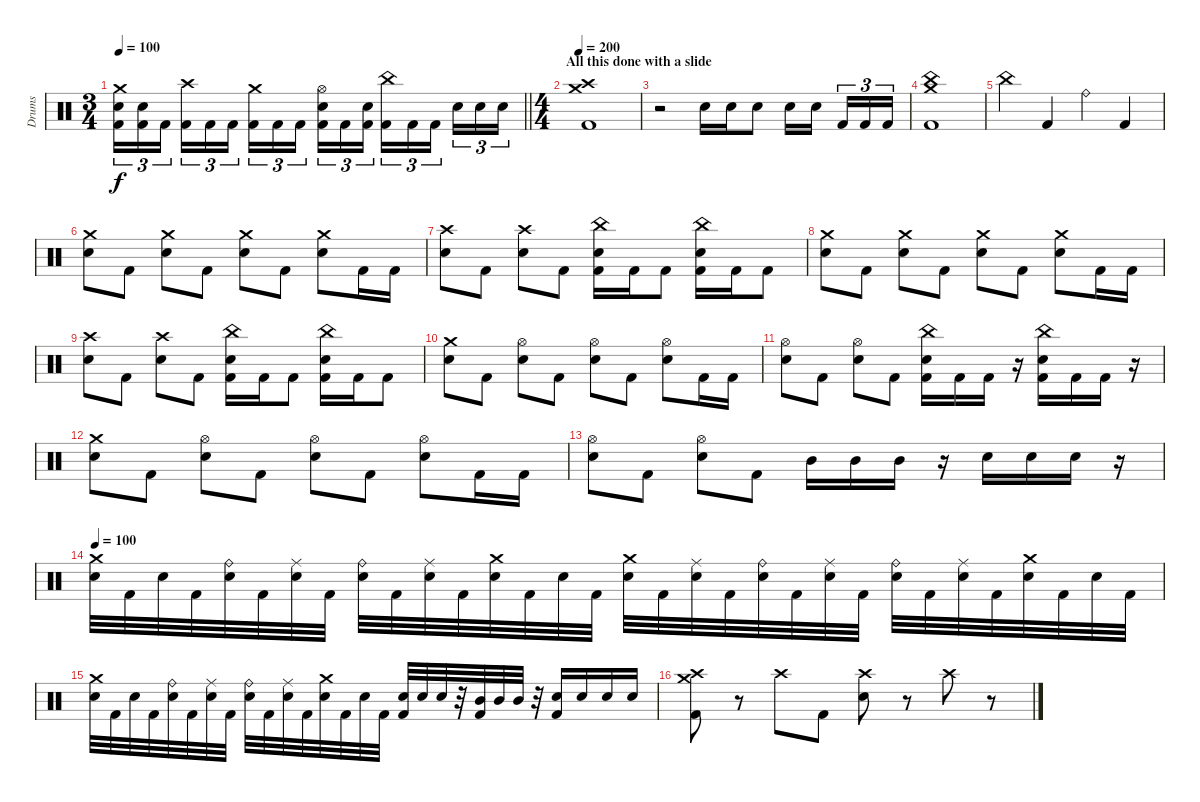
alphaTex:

\track ("Drums" "Drums") {instrument percussion}
\staff {score}
\articulation defaults
\ts (3 4)
\tempo 100
\clef neutral
\barLineRight lightlight
\ks c
("Crash medium (hit)" "Electric Snare (hit)" "Kick (hit) 2").16{tu (3 2) dy f} ("Electric Snare (hit)" "Kick (hit) 2").16{tu (3 2)} "Kick (hit) 2".16{tu (3 2) beam splitsecondary} ("Crash high (hit)" "Kick (hit) 2").16{tu (3 2)} "Kick (hit) 2".16{tu (3 2)} "Kick (hit) 2".16{tu (3 2)} ("Crash medium (hit)" "Kick (hit) 2").16{tu (3 2)} "Kick (hit) 2".16{tu (3 2)} "Kick (hit) 2".16{tu (3 2) beam splitsecondary} ("Hi-Hat (open)" "Electric Snare (hit)" "Kick (hit) 2").16{tu (3 2)} "Kick (hit) 2".16{tu (3 2)} ("Electric Snare (hit)" "Kick (hit) 2").16{tu (3 2)} ("China (hit)" "Kick (hit) 2").16{tu (3 2)} "Kick (hit) 2".16{tu (3 2)} "Kick (hit) 2".16{tu (3 2) beam splitsecondary} "Electric Snare (hit)".16{tu (3 2)} "Electric Snare (hit)".16{tu (3 2)} "Electric Snare (hit)".16{tu (3 2)} |
\ts (4 4)
\section ("" "All this done with a slide")
\tempo 200
("Crash high (hit)" "Crash medium (hit)" "Kick (hit) 2").1 |
r.2 "Electric Snare (hit)".16 "Electric Snare (hit)".16 "Electric Snare (hit)".8 "Electric Snare (hit)".16 "Electric Snare (hit)".16{beam splitsecondary} "Kick (hit) 2".16{tu (3 2)} "Kick (hit) 2".16{tu (3 2)} "Kick (hit) 2".16{tu (3 2)} |
("China (hit)" "Crash medium (hit)" "Kick (hit) 2").1 |
"China (hit)".4 "Kick (hit) 2".4 "Ride (bell)".4 "Kick (hit) 2".4 |
("Crash medium (hit)" "Electric Snare (hit)").8 "Kick (hit) 2".8 ("Crash medium (hit)" "Electric Snare (hit)").8 "Kick (hit) 2".8 ("Crash medium (hit)" "Electric Snare (hit)").8 "Kick (hit) 2".8 ("Crash medium (hit)" "Electric Snare (hit)").8 "Kick (hit) 2".16 "Kick (hit) 2".16 |
("Crash high (hit)" "Electric Snare (hit)").8 "Kick (hit) 2".8 ("Crash high (hit)" "Electric Snare (hit)").8 "Kick (hit) 2".8 ("China (hit)" "Electric Snare (hit)" "Kick (hit) 2").16 "Kick (hit) 2".16 "Kick (hit) 2".8 ("China (hit)" "Electric Snare (hit)" "Kick (hit) 2").16 "Kick (hit) 2".16 "Kick (hit) 2".8 |
("Crash medium (hit)" "Electric Snare (hit)").8 "Kick (hit) 2".8 ("Crash medium (hit)" "Electric Snare (hit)").8 "Kick (hit) 2".8 ("Crash medium (hit)" "Electric Snare (hit)").8 "Kick (hit) 2".8 ("Crash medium (hit)" "Electric Snare (hit)").8 "Kick (hit) 2".16 "Kick (hit) 2".16 |
("Crash high (hit)" "Electric Snare (hit)").8 "Kick (hit) 2".8 ("Crash high (hit)" "Electric Snare (hit)").8 "Kick (hit) 2".8 ("China (hit)" "Electric Snare (hit)" "Kick (hit) 2").16 "Kick (hit) 2".16 "Kick (hit) 2".8 ("China (hit)" "Electric Snare (hit)" "Kick (hit) 2").16 "Kick (hit) 2".16 "Kick (hit) 2".8 |
("Crash medium (hit)" "Electric Snare (hit)").8 "Kick (hit) 2".8 ("Hi-Hat (open)" "Electric Snare (hit)").8 "Kick (hit) 2".8 ("Hi-Hat (open)" "Electric Snare (hit)").8 "Kick (hit) 2".8 ("Hi-Hat (open)" "Electric Snare (hit)").8 "Kick (hit) 2".16 "Kick (hit) 2".16 |
("Hi-Hat (open)" "Electric Snare (hit)").8 "Kick (hit) 2".8 ("Hi-Hat (open)" "Electric Snare (hit)").8 "Kick (hit) 2".8 ("Electric Snare (hit)" "China (hit)" "Kick (hit) 2").16 "Kick (hit) 2".16 "Kick (hit) 2".16 r.16 ("Electric Snare (hit)" "China (hit)" "Kick (hit) 2").16 "Kick (hit) 2".16 "Kick (hit) 2".16 r.16 |
("Crash medium (hit)" "Electric Snare (hit)").8 "Kick (hit) 2".8 ("Hi-Hat (open)" "Electric Snare (hit)").8 "Kick (hit) 2".8 ("Hi-Hat (open)" "Electric Snare (hit)").8 "Kick (hit) 2".8 ("Hi-Hat (open)" "Electric Snare (hit)").8 "Kick (hit) 2".16 "Kick (hit) 2".16 |
("Hi-Hat (open)" "Electric Snare (hit)").8 "Kick (hit) 2".8 ("Hi-Hat (open)" "Electric Snare (hit)").8 "Kick (hit) 2".8 "Mid Tom (hit)".16 "Mid Tom (hit)".16 "Mid Tom (hit)".16 r.16 "Electric Snare (hit)".16 "Electric Snare (hit)".16 "Electric Snare (hit)".16 r.16 |
\tempo 100
("Crash medium (hit)" "Electric Snare (hit)").32 "Kick (hit) 2".32 "Electric Snare (hit)".32 "Kick (hit) 2".32 ("Ride (bell)" "Electric Snare (hit)").32 "Kick (hit) 2".32 ("Ride (middle)" "Electric Snare (hit)").32 "Kick (hit) 2".32 ("Ride (bell)" "Electric Snare (hit)").32 "Kick (hit) 2".32 ("Ride (middle)" "Electric Snare (hit)").32 "Kick (hit) 2".32 ("Crash medium (hit)" "Electric Snare (hit)").32 "Kick (hit) 2".32 "Electric Snare (hit)".32 "Kick (hit) 2".32 ("Crash medium (hit)" "Electric Snare (hit)").32 "Kick (hit) 2".32 ("Ride (middle)" "Electric Snare (hit)").32 "Kick (hit) 2".32 ("Ride (bell)" "Electric Snare (hit)").32 "Kick (hit) 2".32 ("Ride (middle)" "Electric Snare (hit)").32 "Kick (hit) 2".32 ("Ride (bell)" "Electric Snare (hit)").32 "Kick (hit) 2".32 ("Ride (middle)" "Electric Snare (hit)").32 "Kick (hit) 2".32 ("Crash medium (hit)" "Electric Snare (hit)").32 "Kick (hit) 2".32 "Electric Snare (hit)".32 "Kick (hit) 2".32 |
("Crash medium (hit)" "Electric Snare (hit)").32 "Kick (hit) 2".32 "Electric Snare (hit)".32 "Kick (hit) 2".32 ("Ride (bell)" "Electric Snare (hit)").32 "Kick (hit) 2".32 ("Ride (middle)" "Electric Snare (hit)").32 "Kick (hit) 2".32 ("Ride (bell)" "Electric Snare (hit)").32 "Kick (hit) 2".32 ("Ride (middle)" "Electric Snare (hit)").32 "Kick (hit) 2".32 ("Crash medium (hit)" "Electric Snare (hit)").32 "Kick (hit) 2".32 "Electric Snare (hit)".32 "Kick (hit) 2".32 ("Electric Snare (hit)" "Kick (hit) 2").32 "Electric Snare (hit)".32 "Electric Snare (hit)".32 r.32 ("Mid Tom (hit)" "Kick (hit) 2").32 "Mid Tom (hit)".32 "Mid Tom (hit)".32 r.32 ("Electric Snare (hit)" "Kick (hit) 2").16 "Electric Snare (hit)".16 "Electric Snare (hit)".16 "Electric Snare (hit)".16 |
("Crash medium (hit)" "Crash high (hit)" "Kick (hit) 2").8 r.8 "Crash high (hit)".8 "Kick (hit) 2".8 ("Crash high (hit)" "Electric Snare (hit)").8 r.8 "Crash high (hit)".8 r.8
